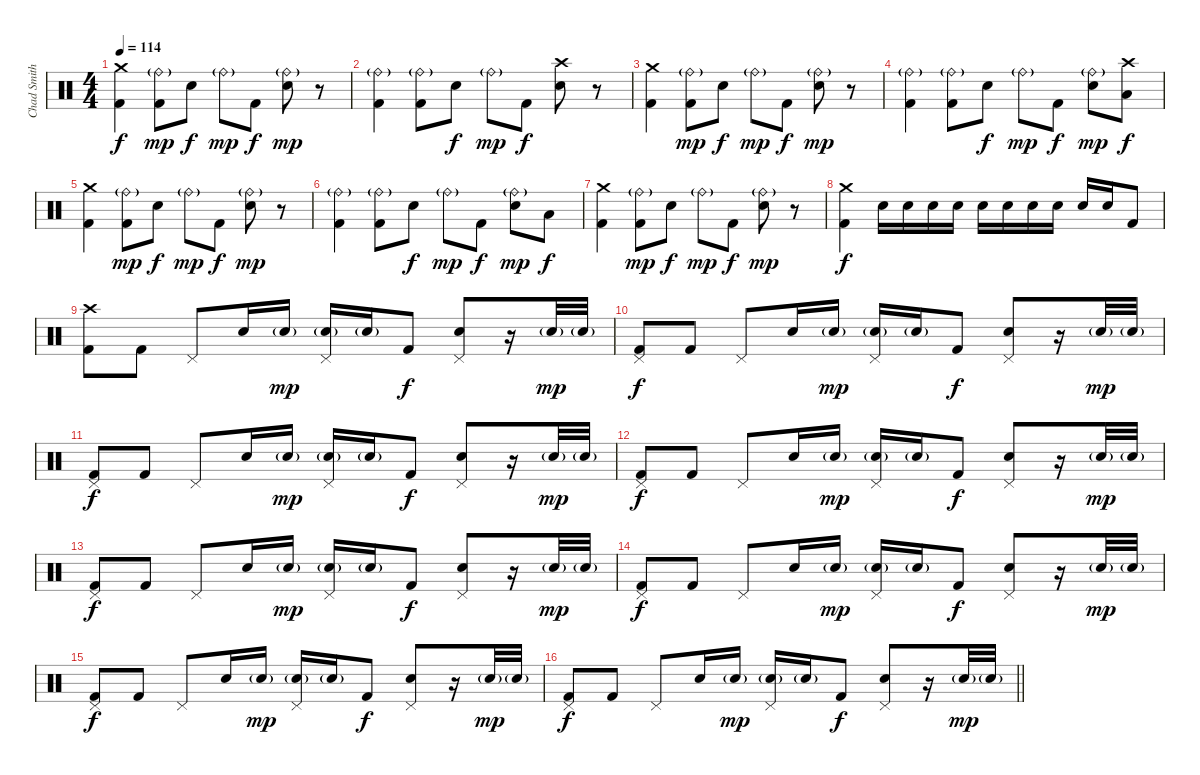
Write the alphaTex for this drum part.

\track ("Chad Smith" "Chad Smith") {instrument percussion}
\staff {score}
\articulation defaults
\ts (4 4)
\tempo 114
\clef neutral
\ks c
("Crash medium (hit)" "Kick (hit) 2").4{dy f} ("Ride (bell)"{g} "Kick (hit) 2").8{dy mp} "Snare (hit) 2".8{dy f} "Ride (bell)"{g}.8{dy mp} "Kick (hit) 2".8{dy f} ("Ride (bell)"{g} "Snare (hit) 2").8{dy mp} r.8 |
("Ride (bell)"{g} "Kick (hit) 2").4 ("Ride (bell)"{g} "Kick (hit) 2").8 "Snare (hit) 2".8{dy f} "Ride (bell)"{g}.8{dy mp} "Kick (hit) 2".8{dy f} ("Crash high (hit)" "Snare (hit) 2").8 r.8 |
("Crash medium (hit)" "Kick (hit) 2").4 ("Ride (bell)"{g} "Kick (hit) 2").8{dy mp} "Snare (hit) 2".8{dy f} "Ride (bell)"{g}.8{dy mp} "Kick (hit) 2".8{dy f} ("Ride (bell)"{g} "Snare (hit) 2").8{dy mp} r.8 |
("Ride (bell)"{g} "Kick (hit) 2").4 ("Ride (bell)"{g} "Kick (hit) 2").8 "Snare (hit) 2".8{dy f} "Ride (bell)"{g}.8{dy mp} "Kick (hit) 2".8{dy f} ("Ride (bell)"{g} "Snare (hit) 2").8{dy mp} ("Crash high (hit)" "Low Floor Tom (hit)").8{dy f} |
("Crash medium (hit)" "Kick (hit) 2").4 ("Ride (bell)"{g} "Kick (hit) 2").8{dy mp} "Snare (hit) 2".8{dy f} "Ride (bell)"{g}.8{dy mp} "Kick (hit) 2".8{dy f} ("Ride (bell)"{g} "Snare (hit) 2").8{dy mp} r.8 |
("Ride (bell)"{g} "Kick (hit) 2").4 ("Ride (bell)"{g} "Kick (hit) 2").8 "Snare (hit) 2".8{dy f} "Ride (bell)"{g}.8{dy mp} "Kick (hit) 2".8{dy f} ("Ride (bell)"{g} "Snare (hit) 2").8{dy mp} "Low Floor Tom (hit)".8{dy f} |
("Crash medium (hit)" "Kick (hit) 2").4 ("Ride (bell)"{g} "Kick (hit) 2").8{dy mp} "Snare (hit) 2".8{dy f} "Ride (bell)"{g}.8{dy mp} "Kick (hit) 2".8{dy f} ("Ride (bell)"{g} "Snare (hit) 2").8{dy mp} r.8 |
("Crash medium (hit)" "Kick (hit) 2").4{dy f} "Electric Snare (hit)".16 "Electric Snare (hit)".16 "Electric Snare (hit)".16 "Electric Snare (hit)".16 "Electric Snare (hit)".16 "Electric Snare (hit)".16 "Electric Snare (hit)".16 "Electric Snare (hit)".16 "Electric Snare (hit)".16 "Electric Snare (hit)".16 "Kick (hit) 2".8 |
("Crash high (hit)" "Kick (hit) 2").8 "Kick (hit) 2".8 "Pedal Hi-Hat (hit)".8 "Snare (hit) 2".16 "Snare (hit) 2"{g}.16{dy mp} ("Pedal Hi-Hat (hit)" "Snare (hit) 2"{g}).16 "Snare (hit) 2"{g}.16 "Kick (hit) 2".8{dy f} ("Pedal Hi-Hat (hit)" "Snare (hit) 2").8 r.16 "Snare (hit) 2"{g}.32{dy mp} "Snare (hit) 2"{g}.32 |
("Pedal Hi-Hat (hit)" "Kick (hit) 2").8{dy f} "Kick (hit) 2".8 "Pedal Hi-Hat (hit)".8 "Snare (hit) 2".16 "Snare (hit) 2"{g}.16{dy mp} ("Pedal Hi-Hat (hit)" "Snare (hit) 2"{g}).16 "Snare (hit) 2"{g}.16 "Kick (hit) 2".8{dy f} ("Pedal Hi-Hat (hit)" "Snare (hit) 2").8 r.16 "Snare (hit) 2"{g}.32{dy mp} "Snare (hit) 2"{g}.32 |
("Pedal Hi-Hat (hit)" "Kick (hit) 2").8{dy f} "Kick (hit) 2".8 "Pedal Hi-Hat (hit)".8 "Snare (hit) 2".16 "Snare (hit) 2"{g}.16{dy mp} ("Pedal Hi-Hat (hit)" "Snare (hit) 2"{g}).16 "Snare (hit) 2"{g}.16 "Kick (hit) 2".8{dy f} ("Pedal Hi-Hat (hit)" "Snare (hit) 2").8 r.16 "Snare (hit) 2"{g}.32{dy mp} "Snare (hit) 2"{g}.32 |
("Pedal Hi-Hat (hit)" "Kick (hit) 2").8{dy f} "Kick (hit) 2".8 "Pedal Hi-Hat (hit)".8 "Snare (hit) 2".16 "Snare (hit) 2"{g}.16{dy mp} ("Pedal Hi-Hat (hit)" "Snare (hit) 2"{g}).16 "Snare (hit) 2"{g}.16 "Kick (hit) 2".8{dy f} ("Pedal Hi-Hat (hit)" "Snare (hit) 2").8 r.16 "Snare (hit) 2"{g}.32{dy mp} "Snare (hit) 2"{g}.32 |
("Pedal Hi-Hat (hit)" "Kick (hit) 2").8{dy f} "Kick (hit) 2".8 "Pedal Hi-Hat (hit)".8 "Snare (hit) 2".16 "Snare (hit) 2"{g}.16{dy mp} ("Pedal Hi-Hat (hit)" "Snare (hit) 2"{g}).16 "Snare (hit) 2"{g}.16 "Kick (hit) 2".8{dy f} ("Pedal Hi-Hat (hit)" "Snare (hit) 2").8 r.16 "Snare (hit) 2"{g}.32{dy mp} "Snare (hit) 2"{g}.32 |
("Pedal Hi-Hat (hit)" "Kick (hit) 2").8{dy f} "Kick (hit) 2".8 "Pedal Hi-Hat (hit)".8 "Snare (hit) 2".16 "Snare (hit) 2"{g}.16{dy mp} ("Pedal Hi-Hat (hit)" "Snare (hit) 2"{g}).16 "Snare (hit) 2"{g}.16 "Kick (hit) 2".8{dy f} ("Pedal Hi-Hat (hit)" "Snare (hit) 2").8 r.16 "Snare (hit) 2"{g}.32{dy mp} "Snare (hit) 2"{g}.32 |
("Pedal Hi-Hat (hit)" "Kick (hit) 2").8{dy f} "Kick (hit) 2".8 "Pedal Hi-Hat (hit)".8 "Snare (hit) 2".16 "Snare (hit) 2"{g}.16{dy mp} ("Pedal Hi-Hat (hit)" "Snare (hit) 2"{g}).16 "Snare (hit) 2"{g}.16 "Kick (hit) 2".8{dy f} ("Pedal Hi-Hat (hit)" "Snare (hit) 2").8 r.16 "Snare (hit) 2"{g}.32{dy mp} "Snare (hit) 2"{g}.32 |
\barLineRight lightlight
("Pedal Hi-Hat (hit)" "Kick (hit) 2").8{dy f} "Kick (hit) 2".8 "Pedal Hi-Hat (hit)".8 "Snare (hit) 2".16 "Snare (hit) 2"{g}.16{dy mp} ("Pedal Hi-Hat (hit)" "Snare (hit) 2"{g}).16 "Snare (hit) 2"{g}.16 "Kick (hit) 2".8{dy f} ("Pedal Hi-Hat (hit)" "Snare (hit) 2").8 r.16 "Snare (hit) 2"{g}.32{dy mp} "Snare (hit) 2"{g}.32
